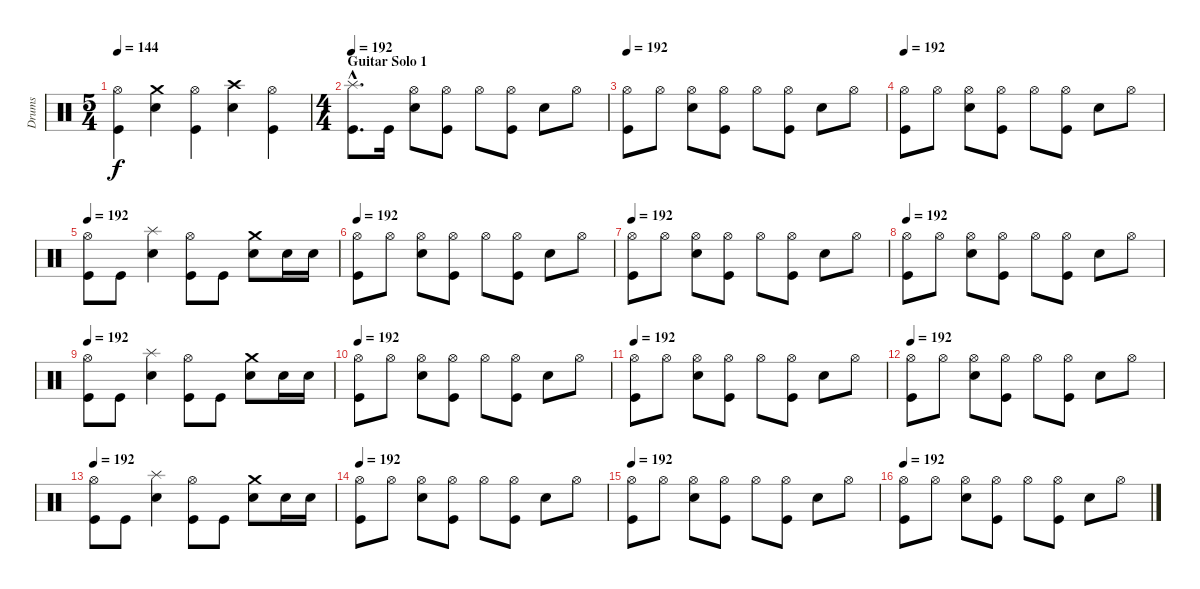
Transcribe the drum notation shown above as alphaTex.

\track ("Drums" "Drums") {instrument percussion}
\staff {score}
\articulation defaults
\ts (5 4)
\tempo 144
\clef neutral
\ks c
("Kick (hit)" "Hi-Hat (open)").4{dy f} ("Electric Snare (hit)" "Crash medium (hit)").4 ("Kick (hit)" "Hi-Hat (open)").4 ("Electric Snare (hit)" "Crash high (hit)").4 ("Kick (hit)" "Hi-Hat (open)").4 |
\ts (4 4)
\section ("" "Guitar Solo 1")
\tempo 192
("Kick (hit)"{hac} "Splash (hit)"{hac}).8{d} "Kick (hit)".16 ("Electric Snare (hit)" "Hi-Hat (open)").8 ("Kick (hit)" "Hi-Hat (open)").8 "Hi-Hat (open)".8 ("Kick (hit)" "Hi-Hat (open)").8 "Electric Snare (hit)".8 "Hi-Hat (open)".8 |
\tempo 192
("Kick (hit)" "Hi-Hat (open)").8 "Hi-Hat (open)".8 ("Electric Snare (hit)" "Hi-Hat (open)").8 ("Kick (hit)" "Hi-Hat (open)").8 "Hi-Hat (open)".8 ("Kick (hit)" "Hi-Hat (open)").8 "Electric Snare (hit)".8 "Hi-Hat (open)".8 |
\tempo 192
("Kick (hit)" "Hi-Hat (open)").8 "Hi-Hat (open)".8 ("Electric Snare (hit)" "Hi-Hat (open)").8 ("Kick (hit)" "Hi-Hat (open)").8 "Hi-Hat (open)".8 ("Kick (hit)" "Hi-Hat (open)").8 "Electric Snare (hit)".8 "Hi-Hat (open)".8 |
\tempo 192
("Kick (hit)" "Hi-Hat (open)").8 "Kick (hit)".8 ("Electric Snare (hit)" "Splash (hit)").4 ("Kick (hit)" "Hi-Hat (open)").8 "Kick (hit)".8 ("Electric Snare (hit)" "Crash medium (hit)").8 "Electric Snare (hit)".16 "Electric Snare (hit)".16 |
\tempo 192
("Kick (hit)" "Hi-Hat (open)").8 "Hi-Hat (open)".8 ("Electric Snare (hit)" "Hi-Hat (open)").8 ("Kick (hit)" "Hi-Hat (open)").8 "Hi-Hat (open)".8 ("Kick (hit)" "Hi-Hat (open)").8 "Electric Snare (hit)".8 "Hi-Hat (open)".8 |
\tempo 192
("Kick (hit)" "Hi-Hat (open)").8 "Hi-Hat (open)".8 ("Electric Snare (hit)" "Hi-Hat (open)").8 ("Kick (hit)" "Hi-Hat (open)").8 "Hi-Hat (open)".8 ("Kick (hit)" "Hi-Hat (open)").8 "Electric Snare (hit)".8 "Hi-Hat (open)".8 |
\tempo 192
("Kick (hit)" "Hi-Hat (open)").8 "Hi-Hat (open)".8 ("Electric Snare (hit)" "Hi-Hat (open)").8 ("Kick (hit)" "Hi-Hat (open)").8 "Hi-Hat (open)".8 ("Kick (hit)" "Hi-Hat (open)").8 "Electric Snare (hit)".8 "Hi-Hat (open)".8 |
\tempo 192
("Kick (hit)" "Hi-Hat (open)").8 "Kick (hit)".8 ("Electric Snare (hit)" "Splash (hit)").4 ("Kick (hit)" "Hi-Hat (open)").8 "Kick (hit)".8 ("Electric Snare (hit)" "Crash medium (hit)").8 "Electric Snare (hit)".16 "Electric Snare (hit)".16 |
\tempo 192
("Kick (hit)" "Hi-Hat (open)").8 "Hi-Hat (open)".8 ("Electric Snare (hit)" "Hi-Hat (open)").8 ("Kick (hit)" "Hi-Hat (open)").8 "Hi-Hat (open)".8 ("Kick (hit)" "Hi-Hat (open)").8 "Electric Snare (hit)".8 "Hi-Hat (open)".8 |
\tempo 192
("Kick (hit)" "Hi-Hat (open)").8 "Hi-Hat (open)".8 ("Electric Snare (hit)" "Hi-Hat (open)").8 ("Kick (hit)" "Hi-Hat (open)").8 "Hi-Hat (open)".8 ("Kick (hit)" "Hi-Hat (open)").8 "Electric Snare (hit)".8 "Hi-Hat (open)".8 |
\tempo 192
("Kick (hit)" "Hi-Hat (open)").8 "Hi-Hat (open)".8 ("Electric Snare (hit)" "Hi-Hat (open)").8 ("Kick (hit)" "Hi-Hat (open)").8 "Hi-Hat (open)".8 ("Kick (hit)" "Hi-Hat (open)").8 "Electric Snare (hit)".8 "Hi-Hat (open)".8 |
\tempo 192
("Kick (hit)" "Hi-Hat (open)").8 "Kick (hit)".8 ("Electric Snare (hit)" "Splash (hit)").4 ("Kick (hit)" "Hi-Hat (open)").8 "Kick (hit)".8 ("Electric Snare (hit)" "Crash medium (hit)").8 "Electric Snare (hit)".16 "Electric Snare (hit)".16 |
\tempo 192
("Kick (hit)" "Hi-Hat (open)").8 "Hi-Hat (open)".8 ("Electric Snare (hit)" "Hi-Hat (open)").8 ("Kick (hit)" "Hi-Hat (open)").8 "Hi-Hat (open)".8 ("Kick (hit)" "Hi-Hat (open)").8 "Electric Snare (hit)".8 "Hi-Hat (open)".8 |
\tempo 192
("Kick (hit)" "Hi-Hat (open)").8 "Hi-Hat (open)".8 ("Electric Snare (hit)" "Hi-Hat (open)").8 ("Kick (hit)" "Hi-Hat (open)").8 "Hi-Hat (open)".8 ("Kick (hit)" "Hi-Hat (open)").8 "Electric Snare (hit)".8 "Hi-Hat (open)".8 |
\tempo 192
("Kick (hit)" "Hi-Hat (open)").8 "Hi-Hat (open)".8 ("Electric Snare (hit)" "Hi-Hat (open)").8 ("Kick (hit)" "Hi-Hat (open)").8 "Hi-Hat (open)".8 ("Kick (hit)" "Hi-Hat (open)").8 "Electric Snare (hit)".8 "Hi-Hat (open)".8
